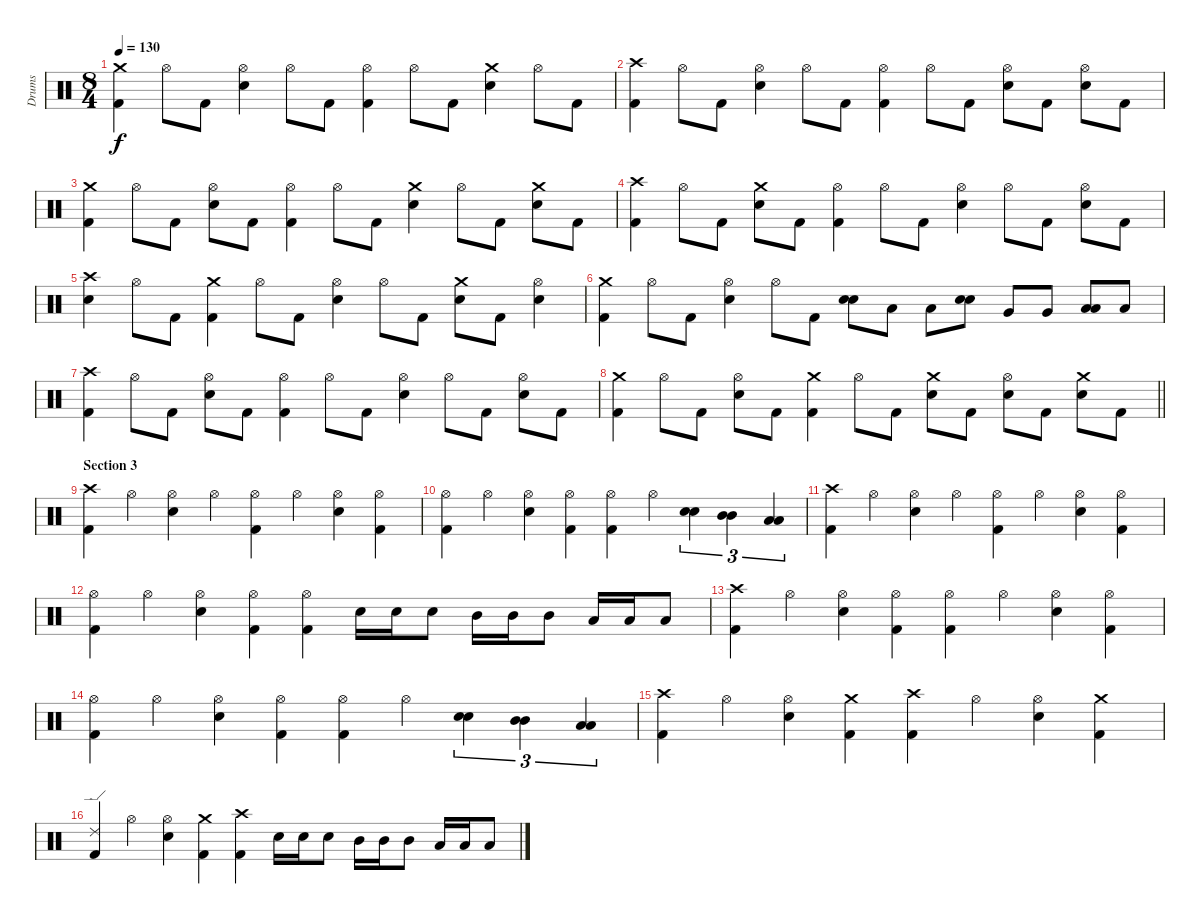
\track ("Drums" "Drums") {instrument percussion}
\staff {score}
\articulation defaults
\ts (8 4)
\tempo 130
\clef neutral
\ks c
("Crash medium (hit)" "Kick (hit) 2").4{dy f} "Hi-Hat (open)".8 "Kick (hit) 2".8 ("Hi-Hat (open)" "Electric Snare (hit)").4 "Hi-Hat (open)".8 "Kick (hit) 2".8 ("Hi-Hat (open)" "Kick (hit) 2").4 "Hi-Hat (open)".8 "Kick (hit) 2".8 ("Crash medium (hit)" "Electric Snare (hit)").4 "Hi-Hat (open)".8 "Kick (hit) 2".8 |
("Crash high (hit)" "Kick (hit) 2").4 "Hi-Hat (open)".8 "Kick (hit) 2".8 ("Hi-Hat (open)" "Electric Snare (hit)").4 "Hi-Hat (open)".8 "Kick (hit) 2".8 ("Hi-Hat (open)" "Kick (hit) 2").4 "Hi-Hat (open)".8 "Kick (hit) 2".8 ("Hi-Hat (open)" "Electric Snare (hit)").8 "Kick (hit) 2".8 ("Hi-Hat (open)" "Electric Snare (hit)").8 "Kick (hit) 2".8 |
("Crash medium (hit)" "Kick (hit) 2").4 "Hi-Hat (open)".8 "Kick (hit) 2".8 ("Hi-Hat (open)" "Electric Snare (hit)").8 "Kick (hit) 2".8 ("Hi-Hat (open)" "Kick (hit) 2").4 "Hi-Hat (open)".8 "Kick (hit) 2".8 ("Crash medium (hit)" "Electric Snare (hit)").4 "Hi-Hat (open)".8 "Kick (hit) 2".8 ("Crash medium (hit)" "Electric Snare (hit)").8 "Kick (hit) 2".8 |
("Crash high (hit)" "Kick (hit) 2").4 "Hi-Hat (open)".8 "Kick (hit) 2".8 ("Crash medium (hit)" "Electric Snare (hit)").8 "Kick (hit) 2".8 ("Hi-Hat (open)" "Kick (hit) 2").4 "Hi-Hat (open)".8 "Kick (hit) 2".8 ("Hi-Hat (open)" "Electric Snare (hit)").4 "Hi-Hat (open)".8 "Kick (hit) 2".8 ("Hi-Hat (open)" "Electric Snare (hit)").8 "Kick (hit) 2".8 |
("Crash high (hit)" "Electric Snare (hit)").4 "Hi-Hat (open)".8 "Kick (hit) 2".8 ("Crash medium (hit)" "Kick (hit) 2").4 "Hi-Hat (open)".8 "Kick (hit) 2".8 ("Hi-Hat (open)" "Electric Snare (hit)").4 "Hi-Hat (open)".8 "Kick (hit) 2".8 ("Crash medium (hit)" "Electric Snare (hit)").8 "Kick (hit) 2".8 ("Hi-Hat (open)" "Electric Snare (hit)").4 |
("Crash medium (hit)" "Kick (hit) 2").4 "Hi-Hat (open)".8 "Kick (hit) 2".8 ("Hi-Hat (open)" "Electric Snare (hit)").4 "Hi-Hat (open)".8 "Kick (hit) 2".8 ("Electric Snare (hit)" "Electric Snare (hit)").8{bu 60} "Low Tom (hit)".8 "Low Tom (hit)".8 ("Electric Snare (hit)" "Electric Snare (hit)").8{bu 60} "Very Low Tom (hit)".8 "Very Low Tom (hit)".8 ("Low Floor Tom (hit)" "Low Floor Tom (hit)").8{bu 60} "Low Floor Tom (hit)".8 |
("Crash high (hit)" "Kick (hit) 2").4 "Hi-Hat (open)".8 "Kick (hit) 2".8 ("Hi-Hat (open)" "Electric Snare (hit)").8 "Kick (hit) 2".8 ("Hi-Hat (open)" "Kick (hit) 2").4 "Hi-Hat (open)".8 "Kick (hit) 2".8 ("Hi-Hat (open)" "Electric Snare (hit)").4 "Hi-Hat (open)".8 "Kick (hit) 2".8 ("Hi-Hat (open)" "Electric Snare (hit)").8 "Kick (hit) 2".8 |
\barLineRight lightlight
("Crash medium (hit)" "Kick (hit) 2").4 "Hi-Hat (open)".8 "Kick (hit) 2".8 ("Hi-Hat (open)" "Electric Snare (hit)").8 "Kick (hit) 2".8 ("Crash medium (hit)" "Kick (hit) 2").4 "Hi-Hat (open)".8 "Kick (hit) 2".8 ("Crash medium (hit)" "Electric Snare (hit)").8 "Kick (hit) 2".8 ("Hi-Hat (open)" "Electric Snare (hit)").8 "Kick (hit) 2".8 ("Crash medium (hit)" "Electric Snare (hit)").8 "Kick (hit) 2".8 |
\section ("" "Section 3")
("Crash high (hit)" "Kick (hit) 2").4 "Hi-Hat (open)".4 ("Hi-Hat (open)" "Electric Snare (hit)").4 "Hi-Hat (open)".4 ("Hi-Hat (open)" "Kick (hit) 2").4 "Hi-Hat (open)".4 ("Hi-Hat (open)" "Electric Snare (hit)").4 ("Hi-Hat (open)" "Kick (hit) 2").4 |
("Hi-Hat (open)" "Kick (hit) 2").4 "Hi-Hat (open)".4 ("Hi-Hat (open)" "Electric Snare (hit)").4 ("Hi-Hat (open)" "Kick (hit) 2").4 ("Hi-Hat (open)" "Kick (hit) 2").4 "Hi-Hat (open)".4 ("Electric Snare (hit)" "Electric Snare (hit)").4{tu (3 2) bu 60} ("Mid Tom (hit)" "Mid Tom (hit)").4{tu (3 2) bu 60} ("Low Tom (hit)" "Low Tom (hit)").4{tu (3 2) bu 60} |
("Crash high (hit)" "Kick (hit) 2").4 "Hi-Hat (open)".4 ("Hi-Hat (open)" "Electric Snare (hit)").4 "Hi-Hat (open)".4 ("Hi-Hat (open)" "Kick (hit) 2").4 "Hi-Hat (open)".4 ("Hi-Hat (open)" "Electric Snare (hit)").4 ("Hi-Hat (open)" "Kick (hit) 2").4 |
("Hi-Hat (open)" "Kick (hit) 2").4 "Hi-Hat (open)".4 ("Hi-Hat (open)" "Electric Snare (hit)").4 ("Hi-Hat (open)" "Kick (hit) 2").4 ("Hi-Hat (open)" "Kick (hit) 2").4 "Electric Snare (hit)".16 "Electric Snare (hit)".16 "Electric Snare (hit)".8 "Mid Tom (hit)".16 "Mid Tom (hit)".16 "Mid Tom (hit)".8 "Low Tom (hit)".16 "Low Tom (hit)".16 "Low Tom (hit)".8 |
("Crash high (hit)" "Kick (hit) 2").4 "Hi-Hat (open)".4 ("Hi-Hat (open)" "Electric Snare (hit)").4 ("Hi-Hat (open)" "Kick (hit) 2").4 ("Hi-Hat (open)" "Kick (hit) 2").4 "Hi-Hat (open)".4 ("Hi-Hat (open)" "Electric Snare (hit)").4 ("Hi-Hat (open)" "Kick (hit) 2").4 |
("Hi-Hat (open)" "Kick (hit) 2").4 "Hi-Hat (open)".4 ("Hi-Hat (open)" "Electric Snare (hit)").4 ("Hi-Hat (open)" "Kick (hit) 2").4 ("Hi-Hat (open)" "Kick (hit) 2").4 "Hi-Hat (open)".4 ("Electric Snare (hit)" "Electric Snare (hit)").4{tu (3 2) bu 60} ("Mid Tom (hit)" "Mid Tom (hit)").4{tu (3 2) bu 60} ("Low Tom (hit)" "Low Tom (hit)").4{tu (3 2) bu 60} |
("Crash high (hit)" "Kick (hit) 2").4 "Hi-Hat (open)".4 ("Hi-Hat (open)" "Electric Snare (hit)").4 ("Crash medium (hit)" "Kick (hit) 2").4 ("Crash high (hit)" "Kick (hit) 2").4 "Hi-Hat (open)".4 ("Hi-Hat (open)" "Electric Snare (hit)").4 ("Crash medium (hit)" "Kick (hit) 2").4 |
("Ride (edge) 2" "Kick (hit) 2").4 "Hi-Hat (open)".4 ("Hi-Hat (open)" "Electric Snare (hit)").4 ("Crash medium (hit)" "Kick (hit) 2").4 ("Crash high (hit)" "Kick (hit) 2").4 "Electric Snare (hit)".16 "Electric Snare (hit)".16 "Electric Snare (hit)".8 "Mid Tom (hit)".16 "Mid Tom (hit)".16 "Mid Tom (hit)".8 "Low Tom (hit)".16 "Low Tom (hit)".16 "Low Tom (hit)".8
